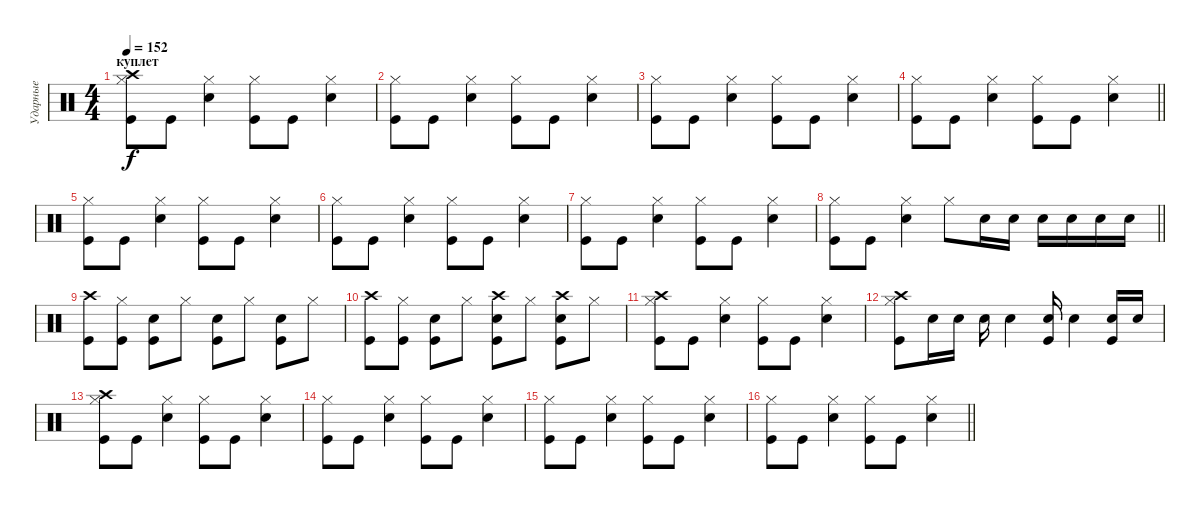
\track ("Ударные" "Ударные") {instrument percussion}
\staff {score}
\articulation defaults
\ts (4 4)
\section ("" "куплет")
\tempo 152
\clef neutral
\ks c
("Hi-Hat (closed)" "Crash high (hit)" "Kick (hit)").8{dy f} "Kick (hit)".8 ("Snare (hit) 2" "Hi-Hat (closed)").4 ("Hi-Hat (closed)" "Kick (hit)").8 "Kick (hit)".8 ("Snare (hit) 2" "Hi-Hat (closed)").4 |
("Hi-Hat (closed)" "Kick (hit)").8 "Kick (hit)".8 ("Snare (hit) 2" "Hi-Hat (closed)").4 ("Hi-Hat (closed)" "Kick (hit)").8 "Kick (hit)".8 ("Snare (hit) 2" "Hi-Hat (closed)").4 |
("Hi-Hat (closed)" "Kick (hit)").8 "Kick (hit)".8 ("Snare (hit) 2" "Hi-Hat (closed)").4 ("Hi-Hat (closed)" "Kick (hit)").8 "Kick (hit)".8 ("Snare (hit) 2" "Hi-Hat (closed)").4 |
\barLineRight lightlight
("Hi-Hat (closed)" "Kick (hit)").8 "Kick (hit)".8 ("Snare (hit) 2" "Hi-Hat (closed)").4 ("Hi-Hat (closed)" "Kick (hit)").8 "Kick (hit)".8 ("Snare (hit) 2" "Hi-Hat (closed)").4 |
("Hi-Hat (closed)" "Kick (hit)").8 "Kick (hit)".8 ("Snare (hit) 2" "Hi-Hat (closed)").4 ("Hi-Hat (closed)" "Kick (hit)").8 "Kick (hit)".8 ("Snare (hit) 2" "Hi-Hat (closed)").4 |
("Hi-Hat (closed)" "Kick (hit)").8 "Kick (hit)".8 ("Snare (hit) 2" "Hi-Hat (closed)").4 ("Hi-Hat (closed)" "Kick (hit)").8 "Kick (hit)".8 ("Snare (hit) 2" "Hi-Hat (closed)").4 |
("Hi-Hat (closed)" "Kick (hit)").8 "Kick (hit)".8 ("Snare (hit) 2" "Hi-Hat (closed)").4 ("Hi-Hat (closed)" "Kick (hit)").8 "Kick (hit)".8 ("Snare (hit) 2" "Hi-Hat (closed)").4 |
\barLineRight lightlight
("Hi-Hat (closed)" "Kick (hit)").8 "Kick (hit)".8 ("Snare (hit) 2" "Hi-Hat (closed)").4 "Hi-Hat (closed)".8 "Snare (hit) 2".16 "Snare (hit) 2".16 "Snare (hit) 2".16 "Snare (hit) 2".16 "Snare (hit) 2".16 "Snare (hit) 2".16 |
("Crash high (hit)" "Kick (hit)").8 ("Hi-Hat (closed)" "Kick (hit)").8 ("Snare (hit) 2" "Kick (hit)").8 "Hi-Hat (closed)".8 ("Snare (hit) 2" "Kick (hit)").8 "Hi-Hat (closed)".8 ("Snare (hit) 2" "Kick (hit)").8 "Hi-Hat (closed)".8 |
("Crash high (hit)" "Kick (hit)").8 ("Hi-Hat (closed)" "Kick (hit)").8 ("Snare (hit) 2" "Kick (hit)").8 "Hi-Hat (closed)".8 ("Snare (hit) 2" "Kick (hit)" "Crash high (hit)").8 "Hi-Hat (closed)".8 ("Snare (hit) 2" "Kick (hit)" "Crash high (hit)").8 "Hi-Hat (closed)".8 |
("Hi-Hat (closed)" "Crash high (hit)" "Kick (hit)").8 "Kick (hit)".8 ("Snare (hit) 2" "Hi-Hat (closed)").4 ("Hi-Hat (closed)" "Kick (hit)").8 "Kick (hit)".8 ("Snare (hit) 2" "Hi-Hat (closed)").4 |
("Hi-Hat (closed)" "Crash high (hit)" "Kick (hit)").8 "Snare (hit) 2".16 "Snare (hit) 2".16 "Snare (hit) 2".16 "Snare (hit) 2".4 ("Snare (hit) 2" "Kick (hit)").16 "Snare (hit) 2".4 ("Snare (hit) 2" "Kick (hit)").16 "Snare (hit) 2".16 |
("Hi-Hat (closed)" "Crash high (hit)" "Kick (hit)").8 "Kick (hit)".8 ("Snare (hit) 2" "Hi-Hat (closed)").4 ("Hi-Hat (closed)" "Kick (hit)").8 "Kick (hit)".8 ("Snare (hit) 2" "Hi-Hat (closed)").4 |
("Hi-Hat (closed)" "Kick (hit)").8 "Kick (hit)".8 ("Snare (hit) 2" "Hi-Hat (closed)").4 ("Hi-Hat (closed)" "Kick (hit)").8 "Kick (hit)".8 ("Snare (hit) 2" "Hi-Hat (closed)").4 |
("Hi-Hat (closed)" "Kick (hit)").8 "Kick (hit)".8 ("Snare (hit) 2" "Hi-Hat (closed)").4 ("Hi-Hat (closed)" "Kick (hit)").8 "Kick (hit)".8 ("Snare (hit) 2" "Hi-Hat (closed)").4 |
\barLineRight lightlight
("Hi-Hat (closed)" "Kick (hit)").8 "Kick (hit)".8 ("Snare (hit) 2" "Hi-Hat (closed)").4 ("Hi-Hat (closed)" "Kick (hit)").8 "Kick (hit)".8 ("Snare (hit) 2" "Hi-Hat (closed)").4
